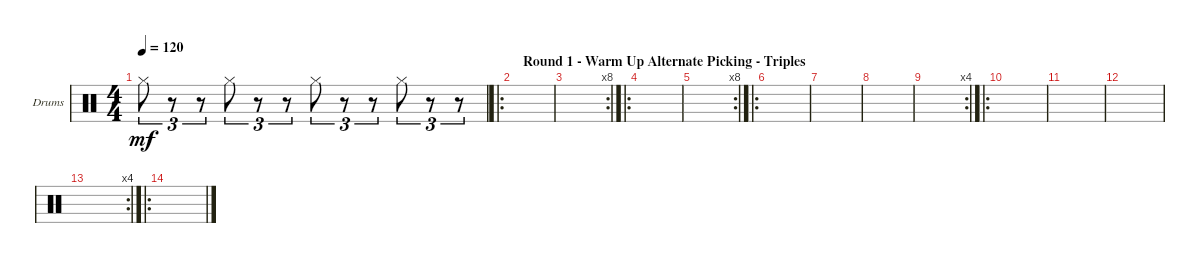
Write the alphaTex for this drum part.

\defaultSystemsLayout 4
\bracketExtendMode groupsimilarinstruments
\firstSystemTrackNameOrientation horizontal
\otherSystemsTrackNameOrientation horizontal
\track ("Drumkit" "Drums") {instrument percussion}
\staff {score}
\articulation defaults
\ts (4 4)
\tempo 120
\clef neutral
\scale
0.435897
\ks c "Hi-Hat (closed)".8{tu (3 2) dy mf}
r.8{tu (3 2)} r.8{tu (3 2)} "Hi-Hat (closed)".8{tu (3 2)} r.8{tu (3 2)} r.8{tu (3 2)} "Hi-Hat (closed)".8{tu (3 2)} r.8{tu (3 2)} r.8{tu (3 2)} "Hi-Hat (closed)".8{tu (3 2)} r.8{tu (3 2)} r.8{tu (3 2)} |
\ro
\section ("" "  Round 1 - Warm Up Alternate Picking - Triples")
\scale
0.294872 |
\rc 8
\scale
0.269231 |
\ro
\scale
0.343284 |
\rc 8
\scale
0.313433 |
\ro
\scale
0.343284 |
\scale
0.322034 |
\scale
0.322034 |
\rc 4
\scale
0.355932 |
\ro
\scale
0.377049 |
\scale
0.311475 |
\scale
0.311475 |
\rc 4
\scale
0.333333 |
\ro
\scale
0.365079 |
\scale
0.301587 |
\scale
0.301587
